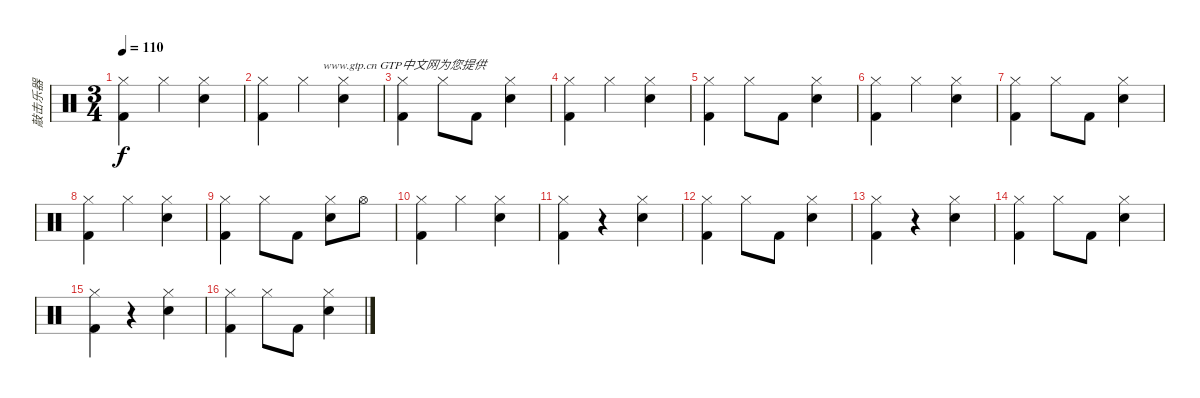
\track ("敲击乐器" "敲击乐器") {instrument percussion}
\staff {score}
\articulation defaults
\ts (3 4)
\tempo 110
\clef neutral
\ks c
("Hi-Hat (closed)" "Kick (hit) 2").4{txt " " dy f} "Hi-Hat (closed)".4 ("Hi-Hat (closed)" "Electric Snare (hit)").4 |
("Hi-Hat (closed)" "Kick (hit) 2").4{txt "                    www.gtp.cn GTP中文网为您提供"} "Hi-Hat (closed)".4 ("Hi-Hat (closed)" "Electric Snare (hit)").4 |
("Hi-Hat (closed)" "Kick (hit) 2").4 "Hi-Hat (closed)".8 "Kick (hit) 2".8 ("Hi-Hat (closed)" "Electric Snare (hit)").4 |
("Hi-Hat (closed)" "Kick (hit) 2").4 "Hi-Hat (closed)".4 ("Hi-Hat (closed)" "Electric Snare (hit)").4 |
("Hi-Hat (closed)" "Kick (hit) 2").4 "Hi-Hat (closed)".8 "Kick (hit) 2".8 ("Hi-Hat (closed)" "Electric Snare (hit)").4 |
("Hi-Hat (closed)" "Kick (hit) 2").4 "Hi-Hat (closed)".4 ("Hi-Hat (closed)" "Electric Snare (hit)").4 |
("Hi-Hat (closed)" "Kick (hit) 2").4 "Hi-Hat (closed)".8 "Kick (hit) 2".8 ("Hi-Hat (closed)" "Electric Snare (hit)").4 |
("Hi-Hat (closed)" "Kick (hit) 2").4 "Hi-Hat (closed)".4 ("Hi-Hat (closed)" "Electric Snare (hit)").4 |
("Hi-Hat (closed)" "Kick (hit) 2").4 "Hi-Hat (closed)".8 "Kick (hit) 2".8 ("Hi-Hat (closed)" "Electric Snare (hit)").8 "Hi-Hat (open)".8 |
("Hi-Hat (closed)" "Kick (hit) 2").4{txt " "} "Hi-Hat (closed)".4 ("Hi-Hat (closed)" "Electric Snare (hit)").4 |
("Hi-Hat (closed)" "Kick (hit) 2").4 r.4 ("Hi-Hat (closed)" "Electric Snare (hit)").4 |
("Hi-Hat (closed)" "Kick (hit) 2").4 "Hi-Hat (closed)".8 "Kick (hit) 2".8 ("Hi-Hat (closed)" "Electric Snare (hit)").4 |
("Hi-Hat (closed)" "Kick (hit) 2").4 r.4 ("Hi-Hat (closed)" "Electric Snare (hit)").4 |
("Hi-Hat (closed)" "Kick (hit) 2").4 "Hi-Hat (closed)".8 "Kick (hit) 2".8 ("Hi-Hat (closed)" "Electric Snare (hit)").4 |
("Hi-Hat (closed)" "Kick (hit) 2").4 r.4 ("Hi-Hat (closed)" "Electric Snare (hit)").4 |
("Hi-Hat (closed)" "Kick (hit) 2").4 "Hi-Hat (closed)".8 "Kick (hit) 2".8 ("Hi-Hat (closed)" "Electric Snare (hit)").4
